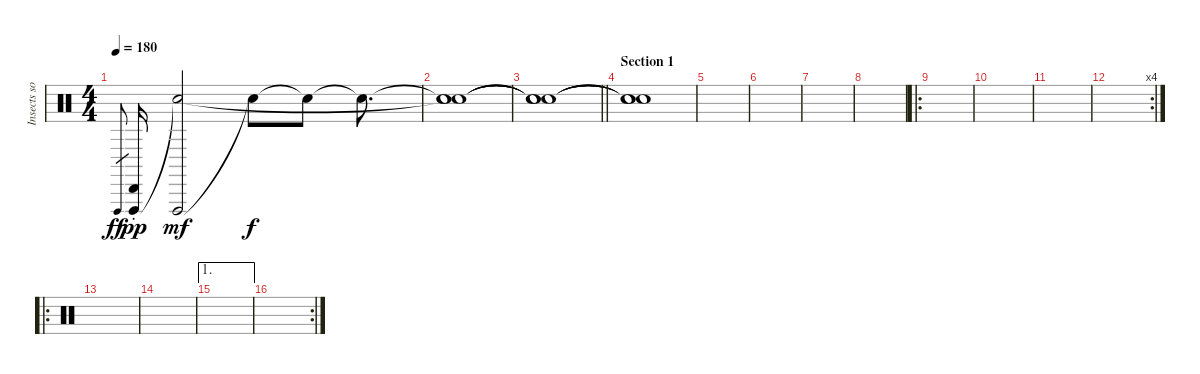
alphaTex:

\track ("Insects sound FX" "Insects so") {instrument percussion}
\staff {score}
\articulation defaults
\ts (4 4)
\tempo 180
\clef neutral
\ks c "Vibraslap (hit)"{sl}.8{gr dy ff}
("Cabasa (hit)"{st} "Vibraslap (hit)"{st}).16{dy pp} ("Vibraslap (hit)" "Snare (hit)"{t}).2{dy mf} "Snare (hit)"{t}.8{dy f} "Snare (hit)"{t}.8 "Snare (hit)"{t}.8{d} |
("Snare (hit)"{t} "Snare (hit)"{t} "Snare (hit)").1 |
\barLineRight lightlight
("Snare (hit)"{t} "Snare (hit)"{t} "Snare (hit)"{t}).1 |
\section ("" "Section 1")
("Snare (hit)"{t} "Snare (hit)"{t} "Snare (hit)"{t}).1 |
|
|
|
|
\ro
|
|
|
\rc 4
|
\ro
|
|
\ae 1
|
\rc 2
